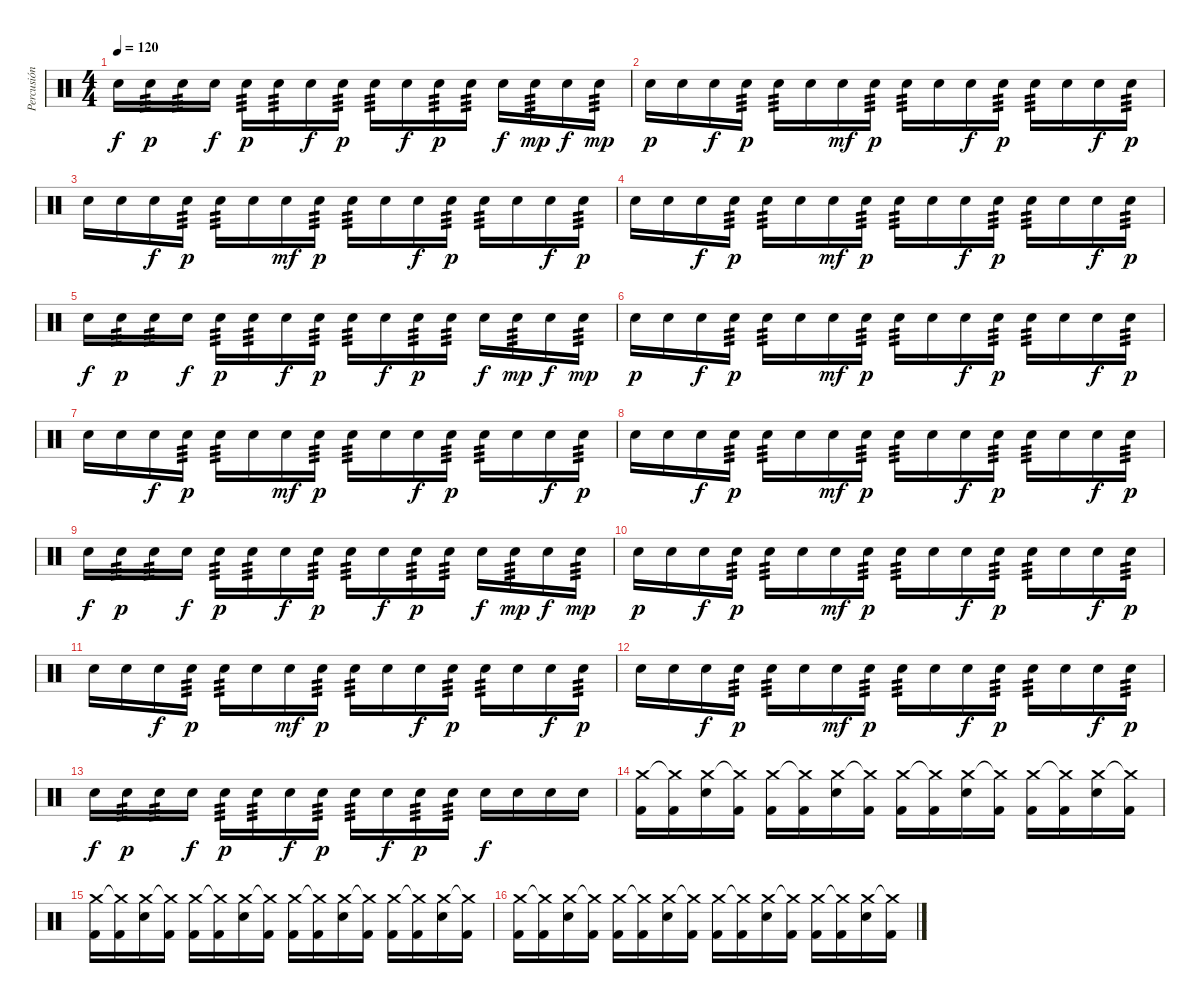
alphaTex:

\track ("Percusión" "Percusión") {instrument percussion}
\staff {score}
\articulation defaults
\ts (4 4)
\tempo 120
\clef neutral
\ks c "Electric Snare (hit)".16{dy f} "Electric Snare (hit)".16{tp 3 dy p} "Electric Snare (hit)".16{tp 3} "Electric Snare (hit)".16{dy f} "Electric Snare (hit)".16{tp 3 dy p} "Electric Snare (hit)".16{tp 3} "Electric Snare (hit)".16{dy f} "Electric Snare (hit)".16{tp 3 dy p} "Electric Snare (hit)".16{tp 3} "Electric Snare (hit)".16{dy f} "Electric Snare (hit)".16{tp 3 dy p} "Electric Snare (hit)".16{tp 3} "Electric Snare (hit)".16{dy f} "Electric Snare (hit)".16{tp 3 dy mp} "Electric Snare (hit)".16{dy f} "Electric Snare (hit)".16{tp 3 dy mp}
|
"Electric Snare (hit)".16{dy p} "Electric Snare (hit)".16 "Electric Snare (hit)".16{dy f} "Electric Snare (hit)".16{tp 3 dy p} "Electric Snare (hit)".16{tp 3} "Electric Snare (hit)".16 "Electric Snare (hit)".16{dy mf} "Electric Snare (hit)".16{tp 3 dy p} "Electric Snare (hit)".16{tp 3} "Electric Snare (hit)".16 "Electric Snare (hit)".16{dy f} "Electric Snare (hit)".16{tp 3 dy p} "Electric Snare (hit)".16{tp 3} "Electric Snare (hit)".16 "Electric Snare (hit)".16{dy f} "Electric Snare (hit)".16{tp 3 dy p} |
"Electric Snare (hit)".16 "Electric Snare (hit)".16 "Electric Snare (hit)".16{dy f} "Electric Snare (hit)".16{tp 3 dy p} "Electric Snare (hit)".16{tp 3} "Electric Snare (hit)".16 "Electric Snare (hit)".16{dy mf} "Electric Snare (hit)".16{tp 3 dy p} "Electric Snare (hit)".16{tp 3} "Electric Snare (hit)".16 "Electric Snare (hit)".16{dy f} "Electric Snare (hit)".16{tp 3 dy p} "Electric Snare (hit)".16{tp 3} "Electric Snare (hit)".16 "Electric Snare (hit)".16{dy f} "Electric Snare (hit)".16{tp 3 dy p} |
"Electric Snare (hit)".16 "Electric Snare (hit)".16 "Electric Snare (hit)".16{dy f} "Electric Snare (hit)".16{tp 3 dy p} "Electric Snare (hit)".16{tp 3} "Electric Snare (hit)".16 "Electric Snare (hit)".16{dy mf} "Electric Snare (hit)".16{tp 3 dy p} "Electric Snare (hit)".16{tp 3} "Electric Snare (hit)".16 "Electric Snare (hit)".16{dy f} "Electric Snare (hit)".16{tp 3 dy p} "Electric Snare (hit)".16{tp 3} "Electric Snare (hit)".16 "Electric Snare (hit)".16{dy f} "Electric Snare (hit)".16{tp 3 dy p} |
"Electric Snare (hit)".16{dy f} "Electric Snare (hit)".16{tp 3 dy p} "Electric Snare (hit)".16{tp 3} "Electric Snare (hit)".16{dy f} "Electric Snare (hit)".16{tp 3 dy p} "Electric Snare (hit)".16{tp 3} "Electric Snare (hit)".16{dy f} "Electric Snare (hit)".16{tp 3 dy p} "Electric Snare (hit)".16{tp 3} "Electric Snare (hit)".16{dy f} "Electric Snare (hit)".16{tp 3 dy p} "Electric Snare (hit)".16{tp 3} "Electric Snare (hit)".16{dy f} "Electric Snare (hit)".16{tp 3 dy mp} "Electric Snare (hit)".16{dy f} "Electric Snare (hit)".16{tp 3 dy mp} |
"Electric Snare (hit)".16{dy p} "Electric Snare (hit)".16 "Electric Snare (hit)".16{dy f} "Electric Snare (hit)".16{tp 3 dy p} "Electric Snare (hit)".16{tp 3} "Electric Snare (hit)".16 "Electric Snare (hit)".16{dy mf} "Electric Snare (hit)".16{tp 3 dy p} "Electric Snare (hit)".16{tp 3} "Electric Snare (hit)".16 "Electric Snare (hit)".16{dy f} "Electric Snare (hit)".16{tp 3 dy p} "Electric Snare (hit)".16{tp 3} "Electric Snare (hit)".16 "Electric Snare (hit)".16{dy f} "Electric Snare (hit)".16{tp 3 dy p} |
"Electric Snare (hit)".16 "Electric Snare (hit)".16 "Electric Snare (hit)".16{dy f} "Electric Snare (hit)".16{tp 3 dy p} "Electric Snare (hit)".16{tp 3} "Electric Snare (hit)".16 "Electric Snare (hit)".16{dy mf} "Electric Snare (hit)".16{tp 3 dy p} "Electric Snare (hit)".16{tp 3} "Electric Snare (hit)".16 "Electric Snare (hit)".16{dy f} "Electric Snare (hit)".16{tp 3 dy p} "Electric Snare (hit)".16{tp 3} "Electric Snare (hit)".16 "Electric Snare (hit)".16{dy f} "Electric Snare (hit)".16{tp 3 dy p} |
"Electric Snare (hit)".16 "Electric Snare (hit)".16 "Electric Snare (hit)".16{dy f} "Electric Snare (hit)".16{tp 3 dy p} "Electric Snare (hit)".16{tp 3} "Electric Snare (hit)".16 "Electric Snare (hit)".16{dy mf} "Electric Snare (hit)".16{tp 3 dy p} "Electric Snare (hit)".16{tp 3} "Electric Snare (hit)".16 "Electric Snare (hit)".16{dy f} "Electric Snare (hit)".16{tp 3 dy p} "Electric Snare (hit)".16{tp 3} "Electric Snare (hit)".16 "Electric Snare (hit)".16{dy f} "Electric Snare (hit)".16{tp 3 dy p} |
"Electric Snare (hit)".16{dy f} "Electric Snare (hit)".16{tp 3 dy p} "Electric Snare (hit)".16{tp 3} "Electric Snare (hit)".16{dy f} "Electric Snare (hit)".16{tp 3 dy p} "Electric Snare (hit)".16{tp 3} "Electric Snare (hit)".16{dy f} "Electric Snare (hit)".16{tp 3 dy p} "Electric Snare (hit)".16{tp 3} "Electric Snare (hit)".16{dy f} "Electric Snare (hit)".16{tp 3 dy p} "Electric Snare (hit)".16{tp 3} "Electric Snare (hit)".16{dy f} "Electric Snare (hit)".16{tp 3 dy mp} "Electric Snare (hit)".16{dy f} "Electric Snare (hit)".16{tp 3 dy mp} |
"Electric Snare (hit)".16{dy p} "Electric Snare (hit)".16 "Electric Snare (hit)".16{dy f} "Electric Snare (hit)".16{tp 3 dy p} "Electric Snare (hit)".16{tp 3} "Electric Snare (hit)".16 "Electric Snare (hit)".16{dy mf} "Electric Snare (hit)".16{tp 3 dy p} "Electric Snare (hit)".16{tp 3} "Electric Snare (hit)".16 "Electric Snare (hit)".16{dy f} "Electric Snare (hit)".16{tp 3 dy p} "Electric Snare (hit)".16{tp 3} "Electric Snare (hit)".16 "Electric Snare (hit)".16{dy f} "Electric Snare (hit)".16{tp 3 dy p} |
"Electric Snare (hit)".16 "Electric Snare (hit)".16 "Electric Snare (hit)".16{dy f} "Electric Snare (hit)".16{tp 3 dy p} "Electric Snare (hit)".16{tp 3} "Electric Snare (hit)".16 "Electric Snare (hit)".16{dy mf} "Electric Snare (hit)".16{tp 3 dy p} "Electric Snare (hit)".16{tp 3} "Electric Snare (hit)".16 "Electric Snare (hit)".16{dy f} "Electric Snare (hit)".16{tp 3 dy p} "Electric Snare (hit)".16{tp 3} "Electric Snare (hit)".16 "Electric Snare (hit)".16{dy f} "Electric Snare (hit)".16{tp 3 dy p} |
"Electric Snare (hit)".16 "Electric Snare (hit)".16 "Electric Snare (hit)".16{dy f} "Electric Snare (hit)".16{tp 3 dy p} "Electric Snare (hit)".16{tp 3} "Electric Snare (hit)".16 "Electric Snare (hit)".16{dy mf} "Electric Snare (hit)".16{tp 3 dy p} "Electric Snare (hit)".16{tp 3} "Electric Snare (hit)".16 "Electric Snare (hit)".16{dy f} "Electric Snare (hit)".16{tp 3 dy p} "Electric Snare (hit)".16{tp 3} "Electric Snare (hit)".16 "Electric Snare (hit)".16{dy f} "Electric Snare (hit)".16{tp 3 dy p} |
"Electric Snare (hit)".16{dy f} "Electric Snare (hit)".16{tp 3 dy p} "Electric Snare (hit)".16{tp 3} "Electric Snare (hit)".16{dy f} "Electric Snare (hit)".16{tp 3 dy p} "Electric Snare (hit)".16{tp 3} "Electric Snare (hit)".16{dy f} "Electric Snare (hit)".16{tp 3 dy p} "Electric Snare (hit)".16{tp 3} "Electric Snare (hit)".16{dy f} "Electric Snare (hit)".16{tp 3 dy p} "Electric Snare (hit)".16{tp 3} "Electric Snare (hit)".16{dy f} "Electric Snare (hit)".16 "Electric Snare (hit)".16 "Electric Snare (hit)".16 |
("Kick (hit) 2" "Crash medium (hit)").16 ("Kick (hit) 2" "Crash medium (hit)"{t}).16 ("Electric Snare (hit)" "Crash medium (hit)").16 ("Kick (hit) 2" "Crash medium (hit)"{t}).16 ("Kick (hit) 2" "Crash medium (hit)").16 ("Kick (hit) 2" "Crash medium (hit)"{t}).16 ("Electric Snare (hit)" "Crash medium (hit)").16 ("Kick (hit) 2" "Crash medium (hit)"{t}).16 ("Kick (hit) 2" "Crash medium (hit)").16 ("Kick (hit) 2" "Crash medium (hit)"{t}).16 ("Electric Snare (hit)" "Crash medium (hit)").16 ("Kick (hit) 2" "Crash medium (hit)"{t}).16 ("Kick (hit) 2" "Crash medium (hit)").16 ("Kick (hit) 2" "Crash medium (hit)"{t}).16 ("Electric Snare (hit)" "Crash medium (hit)").16 ("Kick (hit) 2" "Crash medium (hit)"{t}).16 |
("Kick (hit) 2" "Crash medium (hit)").16 ("Kick (hit) 2" "Crash medium (hit)"{t}).16 ("Electric Snare (hit)" "Crash medium (hit)").16 ("Kick (hit) 2" "Crash medium (hit)"{t}).16 ("Kick (hit) 2" "Crash medium (hit)").16 ("Kick (hit) 2" "Crash medium (hit)"{t}).16 ("Electric Snare (hit)" "Crash medium (hit)").16 ("Kick (hit) 2" "Crash medium (hit)"{t}).16 ("Kick (hit) 2" "Crash medium (hit)").16 ("Kick (hit) 2" "Crash medium (hit)"{t}).16 ("Electric Snare (hit)" "Crash medium (hit)").16 ("Kick (hit) 2" "Crash medium (hit)"{t}).16 ("Kick (hit) 2" "Crash medium (hit)").16 ("Kick (hit) 2" "Crash medium (hit)"{t}).16 ("Electric Snare (hit)" "Crash medium (hit)").16 ("Kick (hit) 2" "Crash medium (hit)"{t}).16 |
("Kick (hit) 2" "Crash medium (hit)").16 ("Kick (hit) 2" "Crash medium (hit)"{t}).16 ("Electric Snare (hit)" "Crash medium (hit)").16 ("Kick (hit) 2" "Crash medium (hit)"{t}).16 ("Kick (hit) 2" "Crash medium (hit)").16 ("Kick (hit) 2" "Crash medium (hit)"{t}).16 ("Electric Snare (hit)" "Crash medium (hit)").16 ("Kick (hit) 2" "Crash medium (hit)"{t}).16 ("Kick (hit) 2" "Crash medium (hit)").16 ("Kick (hit) 2" "Crash medium (hit)"{t}).16 ("Electric Snare (hit)" "Crash medium (hit)").16 ("Kick (hit) 2" "Crash medium (hit)"{t}).16 ("Kick (hit) 2" "Crash medium (hit)").16 ("Kick (hit) 2" "Crash medium (hit)"{t}).16 ("Electric Snare (hit)" "Crash medium (hit)").16 ("Kick (hit) 2" "Crash medium (hit)"{t}).16
